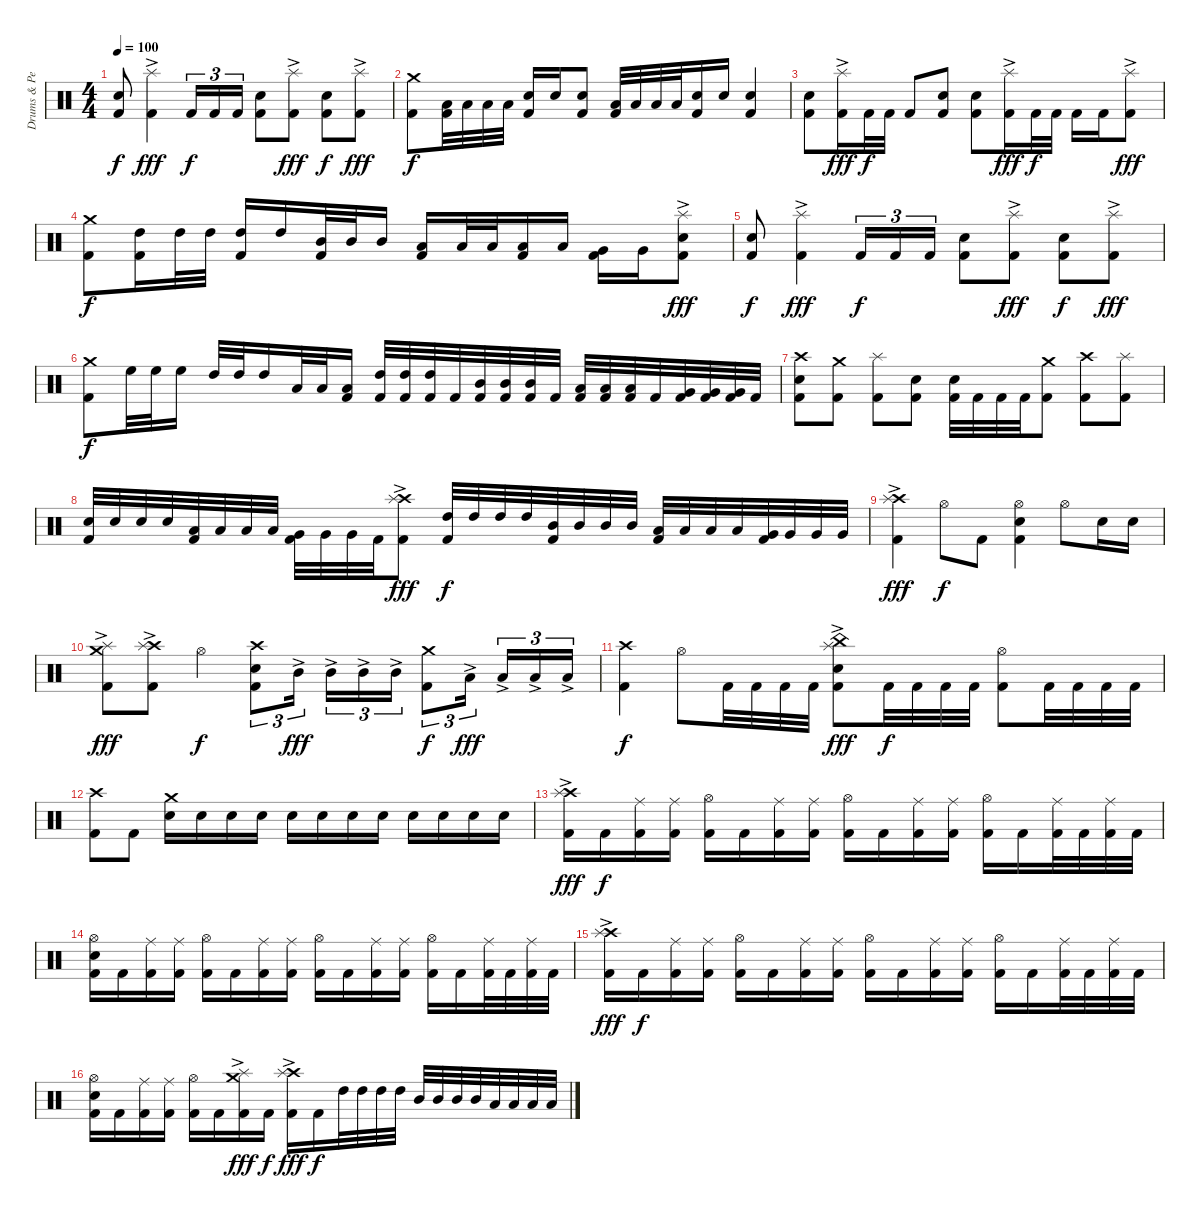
\track ("Drums & Percussion" "Drums & Pe") {instrument percussion}
\staff {score}
\articulation defaults
\ts (4 4)
\tempo 100
\clef neutral
\ks c
("Electric Snare (hit)" "Kick (hit) 2").8{dy f} ("Splash (hit)"{ac} "Kick (hit) 2").4{dy fff} "Kick (hit) 2".16{tu (3 2) dy f} "Kick (hit) 2".16{tu (3 2)} "Kick (hit) 2".16{tu (3 2)} ("Electric Snare (hit)" "Kick (hit) 2").8 ("Splash (hit)"{ac} "Kick (hit) 2").8{dy fff} ("Electric Snare (hit)" "Kick (hit) 2").8{dy f} ("Splash (hit)"{ac} "Kick (hit) 2").8{dy fff} |
("Crash medium (hit)" "Kick (hit) 2").8{dy f} ("Low Floor Tom (hit)" "Kick (hit) 2").32 "Low Floor Tom (hit)".32 "Low Floor Tom (hit)".32 "Low Floor Tom (hit)".32 ("Electric Snare (hit)" "Kick (hit) 2").16 "Electric Snare (hit)".16 ("Electric Snare (hit)" "Kick (hit) 2").8 ("Low Floor Tom (hit)" "Kick (hit) 2").32 "Low Floor Tom (hit)".32 "Low Floor Tom (hit)".32 "Low Floor Tom (hit)".32 ("Electric Snare (hit)" "Kick (hit) 2").16 "Electric Snare (hit)".16 ("Electric Snare (hit)" "Kick (hit) 2").4 |
("Electric Snare (hit)" "Kick (hit) 2").8 ("Splash (hit)"{ac} "Kick (hit) 2").16{dy fff} "Kick (hit) 2".32{dy f} "Kick (hit) 2".32 "Kick (hit) 2".8 ("Electric Snare (hit)" "Kick (hit) 2").8 ("Electric Snare (hit)" "Kick (hit) 2").8 ("Splash (hit)"{ac} "Kick (hit) 2").16{dy fff} "Kick (hit) 2".32{dy f} "Kick (hit) 2".32 "Kick (hit) 2".16 "Kick (hit) 2".16 ("Splash (hit)"{ac} "Kick (hit) 2").8{dy fff} |
("Crash medium (hit)" "Kick (hit) 2").8{dy f} ("High Tom (hit)" "Kick (hit) 2").16 "High Tom (hit)".32 "High Tom (hit)".32 ("High Tom (hit)" "Kick (hit) 2").16 "High Tom (hit)".16 ("Mid Tom (hit)" "Kick (hit) 2").32 "Mid Tom (hit)".32 "Mid Tom (hit)".16 ("Low Tom (hit)" "Kick (hit) 2").16 "Low Tom (hit)".32 "Low Tom (hit)".32 ("Low Tom (hit)" "Kick (hit) 2").16 "Low Tom (hit)".16 ("Very Low Tom (hit)" "Kick (hit) 2").16 "Very Low Tom (hit)".16 ("Splash (hit)"{ac} "Electric Snare (hit)" "Kick (hit) 2").8{dy fff} |
("Electric Snare (hit)" "Kick (hit) 2").8{dy f} ("Splash (hit)"{ac} "Kick (hit) 2").4{dy fff} "Kick (hit) 2".16{tu (3 2) dy f} "Kick (hit) 2".16{tu (3 2)} "Kick (hit) 2".16{tu (3 2)} ("Electric Snare (hit)" "Kick (hit) 2").8 ("Splash (hit)"{ac} "Kick (hit) 2").8{dy fff} ("Electric Snare (hit)" "Kick (hit) 2").8{dy f} ("Splash (hit)"{ac} "Kick (hit) 2").8{dy fff} |
("Crash medium (hit)" "Kick (hit) 2").8{dy f} "High Floor Tom (hit)".32 "High Floor Tom (hit)".32 "High Floor Tom (hit)".16 "High Tom (hit)".32 "High Tom (hit)".32 "High Tom (hit)".16 "Low Tom (hit)".32 "Low Tom (hit)".32 ("Low Tom (hit)" "Kick (hit) 2").16 ("High Tom (hit)" "Kick (hit) 2").32 ("High Tom (hit)" "Kick (hit) 2").32 ("High Tom (hit)" "Kick (hit) 2").32 "Kick (hit) 2".32 ("Mid Tom (hit)" "Kick (hit) 2").32 ("Mid Tom (hit)" "Kick (hit) 2").32 ("Mid Tom (hit)" "Kick (hit) 2").32 "Kick (hit) 2".32 ("Low Tom (hit)" "Kick (hit) 2").32 ("Low Tom (hit)" "Kick (hit) 2").32 ("Low Tom (hit)" "Kick (hit) 2").32 "Kick (hit) 2".32 ("Very Low Tom (hit)" "Kick (hit) 2").32 ("Very Low Tom (hit)" "Kick (hit) 2").32 ("Very Low Tom (hit)" "Kick (hit) 2").32 "Kick (hit) 2".32 |
("Crash high (hit)" "Electric Snare (hit)" "Kick (hit) 2").8 ("Crash medium (hit)" "Kick (hit) 2").8 ("Splash (hit)" "Kick (hit) 2").8 ("Electric Snare (hit)" "Kick (hit) 2").8 ("Electric Snare (hit)" "Kick (hit) 2").32 "Kick (hit) 2".32 "Kick (hit) 2".32 "Kick (hit) 2".32 ("Crash medium (hit)" "Kick (hit) 2").8 ("Crash high (hit)" "Kick (hit) 2").8 ("Splash (hit)" "Kick (hit) 2").8 |
("Electric Snare (hit)" "Kick (hit) 2").32 "Electric Snare (hit)".32 "Electric Snare (hit)".32 "Electric Snare (hit)".32 ("Low Tom (hit)" "Kick (hit) 2").32 "Low Tom (hit)".32 "Low Tom (hit)".32 "Low Tom (hit)".32 ("Very Low Tom (hit)" "Kick (hit) 2").32 "Very Low Tom (hit)".32 "Very Low Tom (hit)".32 "Kick (hit) 2".32 ("Crash high (hit)" "Splash (hit)"{ac} "Kick (hit) 2").8{dy fff} ("High Tom (hit)" "Kick (hit) 2").32{dy f} "High Tom (hit)".32 "High Tom (hit)".32 "High Tom (hit)".32 ("Mid Tom (hit)" "Kick (hit) 2").32 "Mid Tom (hit)".32 "Mid Tom (hit)".32 "Mid Tom (hit)".32 ("Low Tom (hit)" "Kick (hit) 2").32 "Low Tom (hit)".32 "Low Tom (hit)".32 "Low Tom (hit)".32 ("Very Low Tom (hit)" "Kick (hit) 2").32 "Very Low Tom (hit)".32 "Very Low Tom (hit)".32 "Very Low Tom (hit)".32 |
("Crash high (hit)" "Splash (hit)"{ac} "Kick (hit) 2").4{dy fff} "Hi-Hat (open)".8{dy f} "Kick (hit) 2".8 ("Hi-Hat (open)" "Electric Snare (hit)" "Kick (hit) 2").4 "Hi-Hat (open)".8 "Electric Snare (hit)".16 "Electric Snare (hit)".16 |
("Crash medium (hit)" "Splash (hit)"{ac} "Kick (hit) 2").8{dy fff} ("Crash high (hit)" "Splash (hit)"{ac} "Kick (hit) 2").8 "Hi-Hat (open)".4{dy f} ("Crash high (hit)" "Electric Snare (hit)" "Kick (hit) 2").8{tu (3 2)} "Mid Tom (hit)"{ac}.16{tu (3 2) dy fff beam splitsecondary} "Mid Tom (hit)"{ac}.16{tu (3 2)} "Mid Tom (hit)"{ac}.16{tu (3 2)} "Mid Tom (hit)"{ac}.16{tu (3 2)} ("Crash medium (hit)" "Kick (hit) 2").8{tu (3 2) dy f} "Low Tom (hit)"{ac}.16{tu (3 2) dy fff beam splitsecondary} "Low Tom (hit)"{ac}.16{tu (3 2)} "Low Tom (hit)"{ac}.16{tu (3 2)} "Low Tom (hit)"{ac}.16{tu (3 2)} |
("Crash high (hit)" "Kick (hit) 2").4{dy f} "Hi-Hat (open)".8 "Kick (hit) 2".32 "Kick (hit) 2".32 "Kick (hit) 2".32 "Kick (hit) 2".32 ("Splash (hit)"{ac} "China (hit)" "Electric Snare (hit)" "Kick (hit) 2").8{dy fff} "Kick (hit) 2".32{dy f} "Kick (hit) 2".32 "Kick (hit) 2".32 "Kick (hit) 2".32 ("Hi-Hat (open)" "Kick (hit) 2").8 "Kick (hit) 2".32 "Kick (hit) 2".32 "Kick (hit) 2".32 "Kick (hit) 2".32 |
("Crash high (hit)" "Kick (hit) 2").8 "Kick (hit) 2".8 ("Crash medium (hit)" "Electric Snare (hit)").16 "Electric Snare (hit)".16 "Electric Snare (hit)".16 "Electric Snare (hit)".16 "Electric Snare (hit)".16 "Electric Snare (hit)".16 "Electric Snare (hit)".16 "Electric Snare (hit)".16 "Electric Snare (hit)".16 "Electric Snare (hit)".16 "Electric Snare (hit)".16 "Electric Snare (hit)".16 |
("Crash high (hit)" "Splash (hit)"{ac} "Kick (hit) 2").16{dy fff} "Kick (hit) 2".16{dy f} ("Ride (middle)" "Kick (hit) 2").16 ("Ride (middle)" "Kick (hit) 2").16 ("Hi-Hat (open)" "Kick (hit) 2").16 "Kick (hit) 2".16 ("Ride (middle)" "Kick (hit) 2").16 ("Ride (middle)" "Kick (hit) 2").16 ("Hi-Hat (open)" "Kick (hit) 2").16 "Kick (hit) 2".16 ("Ride (middle)" "Kick (hit) 2").16 ("Ride (middle)" "Kick (hit) 2").16 ("Hi-Hat (open)" "Kick (hit) 2").16 "Kick (hit) 2".16 ("Ride (middle)" "Kick (hit) 2").32 "Kick (hit) 2".32 ("Ride (middle)" "Kick (hit) 2").32 "Kick (hit) 2".32 |
("Hi-Hat (open)" "Electric Snare (hit)" "Kick (hit) 2").16 "Kick (hit) 2".16 ("Ride (middle)" "Kick (hit) 2").16 ("Ride (middle)" "Kick (hit) 2").16 ("Hi-Hat (open)" "Kick (hit) 2").16 "Kick (hit) 2".16 ("Ride (middle)" "Kick (hit) 2").16 ("Ride (middle)" "Kick (hit) 2").16 ("Hi-Hat (open)" "Kick (hit) 2").16 "Kick (hit) 2".16 ("Ride (middle)" "Kick (hit) 2").16 ("Ride (middle)" "Kick (hit) 2").16 ("Hi-Hat (open)" "Kick (hit) 2").16 "Kick (hit) 2".16 ("Ride (middle)" "Kick (hit) 2").32 "Kick (hit) 2".32 ("Ride (middle)" "Kick (hit) 2").32 "Kick (hit) 2".32 |
("Crash high (hit)" "Splash (hit)"{ac} "Kick (hit) 2").16{dy fff} "Kick (hit) 2".16{dy f} ("Ride (middle)" "Kick (hit) 2").16 ("Ride (middle)" "Kick (hit) 2").16 ("Hi-Hat (open)" "Kick (hit) 2").16 "Kick (hit) 2".16 ("Ride (middle)" "Kick (hit) 2").16 ("Ride (middle)" "Kick (hit) 2").16 ("Hi-Hat (open)" "Kick (hit) 2").16 "Kick (hit) 2".16 ("Ride (middle)" "Kick (hit) 2").16 ("Ride (middle)" "Kick (hit) 2").16 ("Hi-Hat (open)" "Kick (hit) 2").16 "Kick (hit) 2".16 ("Ride (middle)" "Kick (hit) 2").32 "Kick (hit) 2".32 ("Ride (middle)" "Kick (hit) 2").32 "Kick (hit) 2".32 |
("Hi-Hat (open)" "Electric Snare (hit)" "Kick (hit) 2").16 "Kick (hit) 2".16 ("Ride (middle)" "Kick (hit) 2").16 ("Ride (middle)" "Kick (hit) 2").16 ("Hi-Hat (open)" "Kick (hit) 2").16 "Kick (hit) 2".16 ("Crash medium (hit)" "Splash (hit)"{ac} "Kick (hit) 2").16{dy fff} "Kick (hit) 2".16{dy f} ("Crash high (hit)" "Splash (hit)"{ac} "Kick (hit) 2").16{dy fff} "Kick (hit) 2".16{dy f} "High Tom (hit)".32 "High Tom (hit)".32 "High Tom (hit)".32 "High Tom (hit)".32 "Mid Tom (hit)".32 "Mid Tom (hit)".32 "Mid Tom (hit)".32 "Mid Tom (hit)".32 "Low Tom (hit)".32 "Low Tom (hit)".32 "Low Tom (hit)".32 "Low Tom (hit)".32
